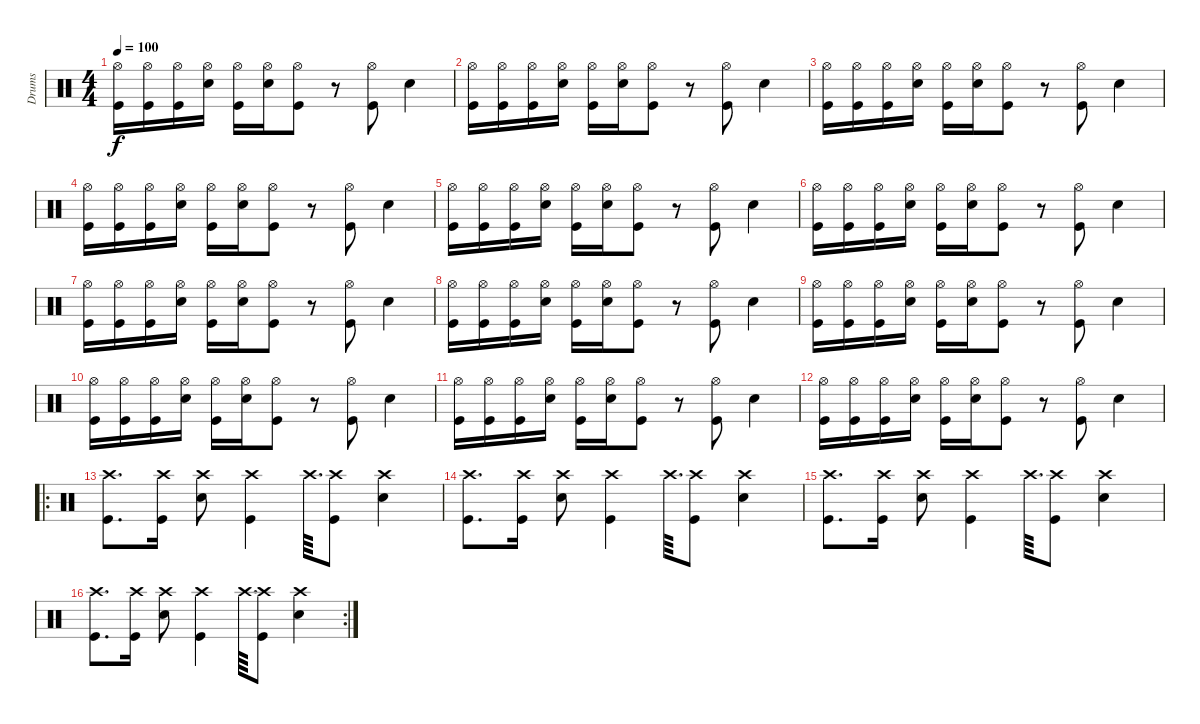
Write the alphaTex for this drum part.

\track ("Drums" "Drums") {instrument percussion}
\staff {score}
\articulation defaults
\ts (4 4)
\tempo 100
\clef neutral
\ks c
("Hi-Hat (open)" "Kick (hit)").16{dy f} ("Hi-Hat (open)" "Kick (hit)").16 ("Hi-Hat (open)" "Kick (hit)").16 ("Hi-Hat (open)" "Snare (hit) 2").16 ("Hi-Hat (open)" "Kick (hit)").16 ("Hi-Hat (open)" "Snare (hit) 2").16 ("Hi-Hat (open)" "Kick (hit)").8 r.8 ("Hi-Hat (open)" "Kick (hit)").8 "Snare (hit) 2".4 |
("Hi-Hat (open)" "Kick (hit)").16 ("Hi-Hat (open)" "Kick (hit)").16 ("Hi-Hat (open)" "Kick (hit)").16 ("Hi-Hat (open)" "Snare (hit) 2").16 ("Hi-Hat (open)" "Kick (hit)").16 ("Hi-Hat (open)" "Snare (hit) 2").16 ("Hi-Hat (open)" "Kick (hit)").8 r.8 ("Hi-Hat (open)" "Kick (hit)").8 "Snare (hit) 2".4 |
("Hi-Hat (open)" "Kick (hit)").16 ("Hi-Hat (open)" "Kick (hit)").16 ("Hi-Hat (open)" "Kick (hit)").16 ("Hi-Hat (open)" "Snare (hit) 2").16 ("Hi-Hat (open)" "Kick (hit)").16 ("Hi-Hat (open)" "Snare (hit) 2").16 ("Hi-Hat (open)" "Kick (hit)").8 r.8 ("Hi-Hat (open)" "Kick (hit)").8 "Snare (hit) 2".4 |
("Hi-Hat (open)" "Kick (hit)").16 ("Hi-Hat (open)" "Kick (hit)").16 ("Hi-Hat (open)" "Kick (hit)").16 ("Hi-Hat (open)" "Snare (hit) 2").16 ("Hi-Hat (open)" "Kick (hit)").16 ("Hi-Hat (open)" "Snare (hit) 2").16 ("Hi-Hat (open)" "Kick (hit)").8 r.8 ("Hi-Hat (open)" "Kick (hit)").8 "Snare (hit) 2".4 |
("Hi-Hat (open)" "Kick (hit)").16 ("Hi-Hat (open)" "Kick (hit)").16 ("Hi-Hat (open)" "Kick (hit)").16 ("Hi-Hat (open)" "Snare (hit) 2").16 ("Hi-Hat (open)" "Kick (hit)").16 ("Hi-Hat (open)" "Snare (hit) 2").16 ("Hi-Hat (open)" "Kick (hit)").8 r.8 ("Hi-Hat (open)" "Kick (hit)").8 "Snare (hit) 2".4 |
("Hi-Hat (open)" "Kick (hit)").16 ("Hi-Hat (open)" "Kick (hit)").16 ("Hi-Hat (open)" "Kick (hit)").16 ("Hi-Hat (open)" "Snare (hit) 2").16 ("Hi-Hat (open)" "Kick (hit)").16 ("Hi-Hat (open)" "Snare (hit) 2").16 ("Hi-Hat (open)" "Kick (hit)").8 r.8 ("Hi-Hat (open)" "Kick (hit)").8 "Snare (hit) 2".4 |
("Hi-Hat (open)" "Kick (hit)").16 ("Hi-Hat (open)" "Kick (hit)").16 ("Hi-Hat (open)" "Kick (hit)").16 ("Hi-Hat (open)" "Snare (hit) 2").16 ("Hi-Hat (open)" "Kick (hit)").16 ("Hi-Hat (open)" "Snare (hit) 2").16 ("Hi-Hat (open)" "Kick (hit)").8 r.8 ("Hi-Hat (open)" "Kick (hit)").8 "Snare (hit) 2".4 |
("Hi-Hat (open)" "Kick (hit)").16 ("Hi-Hat (open)" "Kick (hit)").16 ("Hi-Hat (open)" "Kick (hit)").16 ("Hi-Hat (open)" "Snare (hit) 2").16 ("Hi-Hat (open)" "Kick (hit)").16 ("Hi-Hat (open)" "Snare (hit) 2").16 ("Hi-Hat (open)" "Kick (hit)").8 r.8 ("Hi-Hat (open)" "Kick (hit)").8 "Snare (hit) 2".4 |
("Hi-Hat (open)" "Kick (hit)").16 ("Hi-Hat (open)" "Kick (hit)").16 ("Hi-Hat (open)" "Kick (hit)").16 ("Hi-Hat (open)" "Snare (hit) 2").16 ("Hi-Hat (open)" "Kick (hit)").16 ("Hi-Hat (open)" "Snare (hit) 2").16 ("Hi-Hat (open)" "Kick (hit)").8 r.8 ("Hi-Hat (open)" "Kick (hit)").8 "Snare (hit) 2".4 |
("Hi-Hat (open)" "Kick (hit)").16 ("Hi-Hat (open)" "Kick (hit)").16 ("Hi-Hat (open)" "Kick (hit)").16 ("Hi-Hat (open)" "Snare (hit) 2").16 ("Hi-Hat (open)" "Kick (hit)").16 ("Hi-Hat (open)" "Snare (hit) 2").16 ("Hi-Hat (open)" "Kick (hit)").8 r.8 ("Hi-Hat (open)" "Kick (hit)").8 "Snare (hit) 2".4 |
("Hi-Hat (open)" "Kick (hit)").16 ("Hi-Hat (open)" "Kick (hit)").16 ("Hi-Hat (open)" "Kick (hit)").16 ("Hi-Hat (open)" "Snare (hit) 2").16 ("Hi-Hat (open)" "Kick (hit)").16 ("Hi-Hat (open)" "Snare (hit) 2").16 ("Hi-Hat (open)" "Kick (hit)").8 r.8 ("Hi-Hat (open)" "Kick (hit)").8 "Snare (hit) 2".4 |
("Hi-Hat (open)" "Kick (hit)").16 ("Hi-Hat (open)" "Kick (hit)").16 ("Hi-Hat (open)" "Kick (hit)").16 ("Hi-Hat (open)" "Snare (hit) 2").16 ("Hi-Hat (open)" "Kick (hit)").16 ("Hi-Hat (open)" "Snare (hit) 2").16 ("Hi-Hat (open)" "Kick (hit)").8 r.8 ("Hi-Hat (open)" "Kick (hit)").8 "Snare (hit) 2".4 |
\ro
("Crash high (hit)" "Kick (hit)").8{d} ("Crash high (hit)" "Kick (hit)").16 ("Crash high (hit)" "Snare (hit) 2").8 ("Crash high (hit)" "Kick (hit)").4 "Crash high (hit)".64{d} ("Crash high (hit)" "Kick (hit)").8 ("Crash high (hit)" "Snare (hit) 2").4 |
("Crash high (hit)" "Kick (hit)").8{d} ("Crash high (hit)" "Kick (hit)").16 ("Crash high (hit)" "Snare (hit) 2").8 ("Crash high (hit)" "Kick (hit)").4 "Crash high (hit)".64{d} ("Crash high (hit)" "Kick (hit)").8 ("Crash high (hit)" "Snare (hit) 2").4 |
("Crash high (hit)" "Kick (hit)").8{d} ("Crash high (hit)" "Kick (hit)").16 ("Crash high (hit)" "Snare (hit) 2").8 ("Crash high (hit)" "Kick (hit)").4 "Crash high (hit)".64{d} ("Crash high (hit)" "Kick (hit)").8 ("Crash high (hit)" "Snare (hit) 2").4 |
\rc 2
("Crash high (hit)" "Kick (hit)").8{d} ("Crash high (hit)" "Kick (hit)").16 ("Crash high (hit)" "Snare (hit) 2").8 ("Crash high (hit)" "Kick (hit)").4 "Crash high (hit)".64{d} ("Crash high (hit)" "Kick (hit)").8 ("Crash high (hit)" "Snare (hit) 2").4
